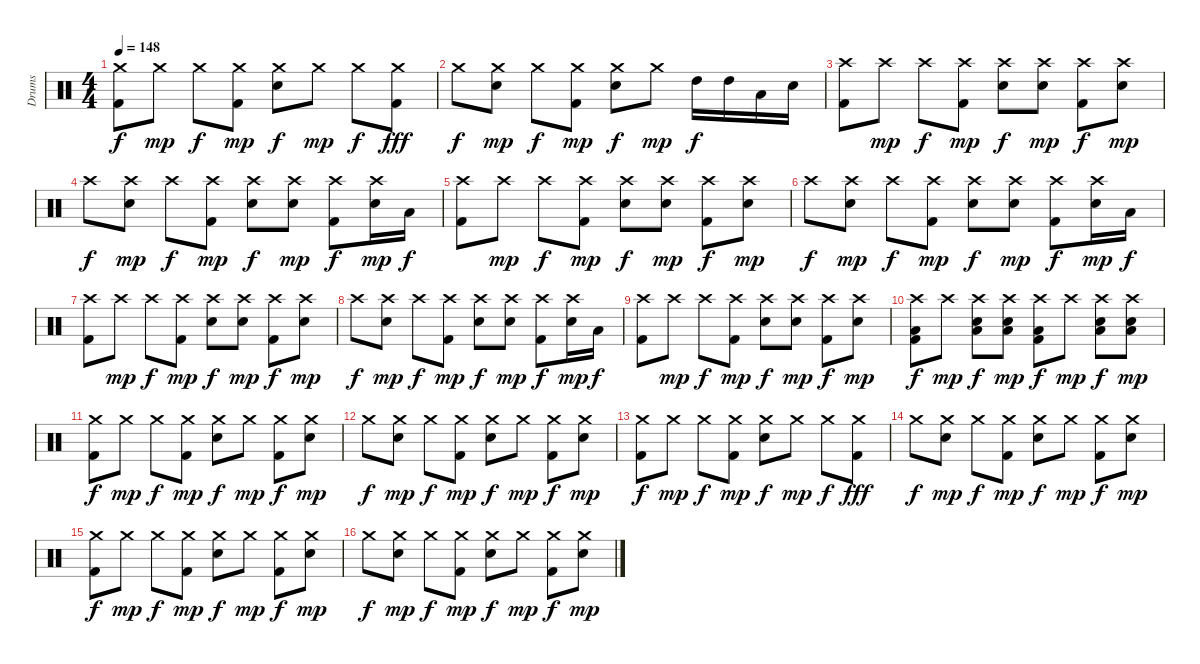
\track ("Drums" "Drums") {instrument percussion}
\staff {score}
\articulation defaults
\ts (4 4)
\tempo 148
\clef neutral
\ks c
("Crash medium (hit)" "Kick (hit) 2").8{dy f} "Crash medium (hit)".8{dy mp} "Crash medium (hit)".8{dy f} ("Crash medium (hit)" "Kick (hit) 2").8{dy mp} ("Crash medium (hit)" "Snare (hit) 2").8{dy f} "Crash medium (hit)".8{dy mp} "Crash medium (hit)".8{dy f} ("Crash medium (hit)" "Kick (hit) 2").8{dy fff} |
"Crash medium (hit)".8{dy f} ("Crash medium (hit)" "Snare (hit) 2").8{dy mp} "Crash medium (hit)".8{dy f} ("Crash medium (hit)" "Kick (hit) 2").8{dy mp} ("Crash medium (hit)" "Snare (hit) 2").8{dy f} "Crash medium (hit)".8{dy mp} "High Tom (hit)".16{dy f} "High Tom (hit)".16 "Low Tom (hit)".16 "Snare (hit) 2".16 |
("Crash high (hit)" "Kick (hit) 2").8 "Crash high (hit)".8{dy mp} "Crash high (hit)".8{dy f} ("Crash high (hit)" "Kick (hit) 2").8{dy mp} ("Crash high (hit)" "Snare (hit) 2").8{dy f} ("Crash high (hit)" "Snare (hit) 2").8{dy mp} ("Crash high (hit)" "Kick (hit) 2").8{dy f} ("Crash high (hit)" "Snare (hit) 2").8{dy mp} |
"Crash high (hit)".8{dy f} ("Crash high (hit)" "Snare (hit) 2").8{dy mp} "Crash high (hit)".8{dy f} ("Crash high (hit)" "Kick (hit) 2").8{dy mp} ("Crash high (hit)" "Snare (hit) 2").8{dy f} ("Crash high (hit)" "Snare (hit) 2").8{dy mp} ("Crash high (hit)" "Kick (hit) 2").8{dy f} ("Crash high (hit)" "Snare (hit) 2").16{dy mp} "Low Tom (hit)".16{dy f} |
("Crash high (hit)" "Kick (hit) 2").8 "Crash high (hit)".8{dy mp} "Crash high (hit)".8{dy f} ("Crash high (hit)" "Kick (hit) 2").8{dy mp} ("Crash high (hit)" "Snare (hit) 2").8{dy f} ("Crash high (hit)" "Snare (hit) 2").8{dy mp} ("Crash high (hit)" "Kick (hit) 2").8{dy f} ("Crash high (hit)" "Snare (hit) 2").8{dy mp} |
"Crash high (hit)".8{dy f} ("Crash high (hit)" "Snare (hit) 2").8{dy mp} "Crash high (hit)".8{dy f} ("Crash high (hit)" "Kick (hit) 2").8{dy mp} ("Crash high (hit)" "Snare (hit) 2").8{dy f} ("Crash high (hit)" "Snare (hit) 2").8{dy mp} ("Crash high (hit)" "Kick (hit) 2").8{dy f} ("Crash high (hit)" "Snare (hit) 2").16{dy mp} "Low Tom (hit)".16{dy f} |
("Crash high (hit)" "Kick (hit) 2").8 "Crash high (hit)".8{dy mp} "Crash high (hit)".8{dy f} ("Crash high (hit)" "Kick (hit) 2").8{dy mp} ("Crash high (hit)" "Snare (hit) 2").8{dy f} ("Crash high (hit)" "Snare (hit) 2").8{dy mp} ("Crash high (hit)" "Kick (hit) 2").8{dy f} ("Crash high (hit)" "Snare (hit) 2").8{dy mp} |
"Crash high (hit)".8{dy f} ("Crash high (hit)" "Snare (hit) 2").8{dy mp} "Crash high (hit)".8{dy f} ("Crash high (hit)" "Kick (hit) 2").8{dy mp} ("Crash high (hit)" "Snare (hit) 2").8{dy f} ("Crash high (hit)" "Snare (hit) 2").8{dy mp} ("Crash high (hit)" "Kick (hit) 2").8{dy f} ("Crash high (hit)" "Snare (hit) 2").16{dy mp} "Low Tom (hit)".16{dy f} |
("Crash high (hit)" "Kick (hit) 2").8 "Crash high (hit)".8{dy mp} "Crash high (hit)".8{dy f} ("Crash high (hit)" "Kick (hit) 2").8{dy mp} ("Crash high (hit)" "Snare (hit) 2").8{dy f} ("Crash high (hit)" "Snare (hit) 2").8{dy mp} ("Crash high (hit)" "Kick (hit) 2").8{dy f} ("Crash high (hit)" "Snare (hit) 2").8{dy mp} |
("Crash high (hit)" "Low Tom (hit)" "Kick (hit) 2").8{dy f} "Crash high (hit)".8{dy mp} ("Crash high (hit)" "Low Tom (hit)" "Snare (hit) 2").8{dy f} ("Crash high (hit)" "Low Tom (hit)" "Snare (hit) 2").8{dy mp} ("Crash high (hit)" "Low Tom (hit)" "Kick (hit) 2").8{dy f} "Crash high (hit)".8{dy mp} ("Crash high (hit)" "Low Tom (hit)" "Snare (hit) 2").8{dy f} ("Crash high (hit)" "Low Tom (hit)" "Snare (hit) 2").8{dy mp} |
("Crash medium (hit)" "Kick (hit) 2").8{dy f} "Crash medium (hit)".8{dy mp} "Crash medium (hit)".8{dy f} ("Crash medium (hit)" "Kick (hit) 2").8{dy mp} ("Crash medium (hit)" "Snare (hit) 2").8{dy f} "Crash medium (hit)".8{dy mp} ("Crash medium (hit)" "Kick (hit) 2").8{dy f} ("Crash medium (hit)" "Snare (hit) 2").8{dy mp} |
"Crash medium (hit)".8{dy f} ("Crash medium (hit)" "Snare (hit) 2").8{dy mp} "Crash medium (hit)".8{dy f} ("Crash medium (hit)" "Kick (hit) 2").8{dy mp} ("Crash medium (hit)" "Snare (hit) 2").8{dy f} "Crash medium (hit)".8{dy mp} ("Crash medium (hit)" "Kick (hit) 2").8{dy f} ("Crash medium (hit)" "Snare (hit) 2").8{dy mp} |
("Crash medium (hit)" "Kick (hit) 2").8{dy f} "Crash medium (hit)".8{dy mp} "Crash medium (hit)".8{dy f} ("Crash medium (hit)" "Kick (hit) 2").8{dy mp} ("Crash medium (hit)" "Snare (hit) 2").8{dy f} "Crash medium (hit)".8{dy mp} "Crash medium (hit)".8{dy f} ("Crash medium (hit)" "Kick (hit) 2").8{dy fff} |
"Crash medium (hit)".8{dy f} ("Crash medium (hit)" "Snare (hit) 2").8{dy mp} "Crash medium (hit)".8{dy f} ("Crash medium (hit)" "Kick (hit) 2").8{dy mp} ("Crash medium (hit)" "Snare (hit) 2").8{dy f} "Crash medium (hit)".8{dy mp} ("Crash medium (hit)" "Kick (hit) 2").8{dy f} ("Crash medium (hit)" "Snare (hit) 2").8{dy mp} |
("Crash medium (hit)" "Kick (hit) 2").8{dy f} "Crash medium (hit)".8{dy mp} "Crash medium (hit)".8{dy f} ("Crash medium (hit)" "Kick (hit) 2").8{dy mp} ("Crash medium (hit)" "Snare (hit) 2").8{dy f} "Crash medium (hit)".8{dy mp} ("Crash medium (hit)" "Kick (hit) 2").8{dy f} ("Crash medium (hit)" "Snare (hit) 2").8{dy mp} |
"Crash medium (hit)".8{dy f} ("Crash medium (hit)" "Snare (hit) 2").8{dy mp} "Crash medium (hit)".8{dy f} ("Crash medium (hit)" "Kick (hit) 2").8{dy mp} ("Crash medium (hit)" "Snare (hit) 2").8{dy f} "Crash medium (hit)".8{dy mp} ("Crash medium (hit)" "Kick (hit) 2").8{dy f} ("Crash medium (hit)" "Snare (hit) 2").8{dy mp}
